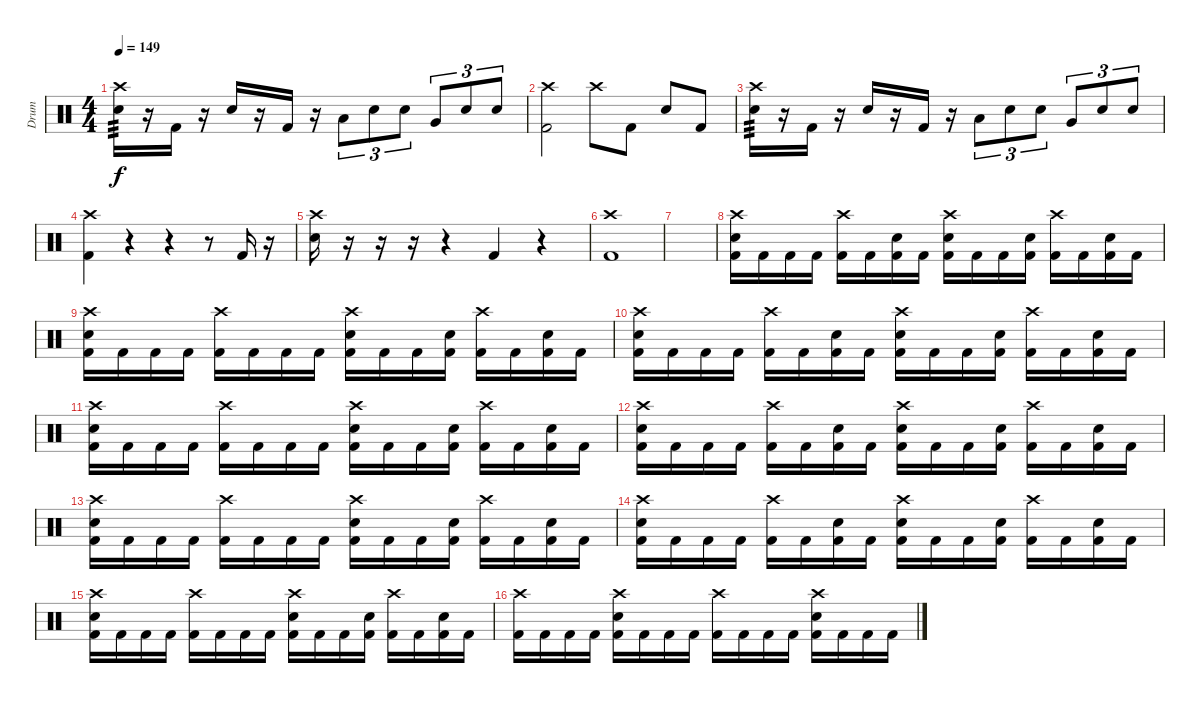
\track ("Drum" "Drum") {instrument percussion}
\staff {score}
\articulation defaults
\ts (4 4)
\tempo 149
\clef neutral
\ks c
("Crash high (hit)" "Electric Snare (hit)").16{tp 3 dy f} r.16 "Kick (hit) 2".16 r.16 "Electric Snare (hit)".16 r.16 "Kick (hit) 2".16 r.16 "Low Tom (hit)".8{tu (3 2)} "Electric Snare (hit)".8{tu (3 2)} "Electric Snare (hit)".8{tu (3 2)} "Very Low Tom (hit)".8{tu (3 2)} "Electric Snare (hit)".8{tu (3 2)} "Electric Snare (hit)".8{tu (3 2)} |
("Crash high (hit)" "Kick (hit) 2").2 "Crash high (hit)".8 "Kick (hit) 2".8 "Electric Snare (hit)".8 "Kick (hit) 2".8 |
("Crash high (hit)" "Electric Snare (hit)").16{tp 3} r.16 "Kick (hit) 2".16 r.16 "Electric Snare (hit)".16 r.16 "Kick (hit) 2".16 r.16 "Low Tom (hit)".8{tu (3 2)} "Electric Snare (hit)".8{tu (3 2)} "Electric Snare (hit)".8{tu (3 2)} "Very Low Tom (hit)".8{tu (3 2)} "Electric Snare (hit)".8{tu (3 2)} "Electric Snare (hit)".8{tu (3 2)} |
("Crash high (hit)" "Kick (hit) 2").4 r.4 r.4 r.8 "Kick (hit) 2".16 r.16 |
("Crash high (hit)" "Electric Snare (hit)").16 r.16 r.16 r.16 r.4 "Kick (hit) 2".4 r.4 |
("Crash high (hit)" "Kick (hit) 2").1 |
|
("Crash high (hit)" "Electric Snare (hit)" "Kick (hit) 2").16 "Kick (hit) 2".16 "Kick (hit) 2".16 "Kick (hit) 2".16 ("Crash high (hit)" "Kick (hit) 2").16 "Kick (hit) 2".16 ("Electric Snare (hit)" "Kick (hit) 2").16 "Kick (hit) 2".16 ("Crash high (hit)" "Electric Snare (hit)" "Kick (hit) 2").16 "Kick (hit) 2".16 "Kick (hit) 2".16 ("Electric Snare (hit)" "Kick (hit) 2").16 ("Crash high (hit)" "Kick (hit) 2").16 "Kick (hit) 2".16 ("Electric Snare (hit)" "Kick (hit) 2").16 "Kick (hit) 2".16 |
("Crash high (hit)" "Electric Snare (hit)" "Kick (hit) 2").16 "Kick (hit) 2".16 "Kick (hit) 2".16 "Kick (hit) 2".16 ("Crash high (hit)" "Kick (hit) 2").16 "Kick (hit) 2".16 "Kick (hit) 2".16 "Kick (hit) 2".16 ("Crash high (hit)" "Electric Snare (hit)" "Kick (hit) 2").16 "Kick (hit) 2".16 "Kick (hit) 2".16 ("Electric Snare (hit)" "Kick (hit) 2").16 ("Crash high (hit)" "Kick (hit) 2").16 "Kick (hit) 2".16 ("Electric Snare (hit)" "Kick (hit) 2").16 "Kick (hit) 2".16 |
("Crash high (hit)" "Electric Snare (hit)" "Kick (hit) 2").16 "Kick (hit) 2".16 "Kick (hit) 2".16 "Kick (hit) 2".16 ("Crash high (hit)" "Kick (hit) 2").16 "Kick (hit) 2".16 ("Electric Snare (hit)" "Kick (hit) 2").16 "Kick (hit) 2".16 ("Crash high (hit)" "Electric Snare (hit)" "Kick (hit) 2").16 "Kick (hit) 2".16 "Kick (hit) 2".16 ("Electric Snare (hit)" "Kick (hit) 2").16 ("Crash high (hit)" "Kick (hit) 2").16 "Kick (hit) 2".16 ("Electric Snare (hit)" "Kick (hit) 2").16 "Kick (hit) 2".16 |
("Crash high (hit)" "Electric Snare (hit)" "Kick (hit) 2").16 "Kick (hit) 2".16 "Kick (hit) 2".16 "Kick (hit) 2".16 ("Crash high (hit)" "Kick (hit) 2").16 "Kick (hit) 2".16 "Kick (hit) 2".16 "Kick (hit) 2".16 ("Crash high (hit)" "Electric Snare (hit)" "Kick (hit) 2").16 "Kick (hit) 2".16 "Kick (hit) 2".16 ("Electric Snare (hit)" "Kick (hit) 2").16 ("Crash high (hit)" "Kick (hit) 2").16 "Kick (hit) 2".16 ("Electric Snare (hit)" "Kick (hit) 2").16 "Kick (hit) 2".16 |
("Crash high (hit)" "Electric Snare (hit)" "Kick (hit) 2").16 "Kick (hit) 2".16 "Kick (hit) 2".16 "Kick (hit) 2".16 ("Crash high (hit)" "Kick (hit) 2").16 "Kick (hit) 2".16 ("Electric Snare (hit)" "Kick (hit) 2").16 "Kick (hit) 2".16 ("Crash high (hit)" "Electric Snare (hit)" "Kick (hit) 2").16 "Kick (hit) 2".16 "Kick (hit) 2".16 ("Electric Snare (hit)" "Kick (hit) 2").16 ("Crash high (hit)" "Kick (hit) 2").16 "Kick (hit) 2".16 ("Electric Snare (hit)" "Kick (hit) 2").16 "Kick (hit) 2".16 |
("Crash high (hit)" "Electric Snare (hit)" "Kick (hit) 2").16 "Kick (hit) 2".16 "Kick (hit) 2".16 "Kick (hit) 2".16 ("Crash high (hit)" "Kick (hit) 2").16 "Kick (hit) 2".16 "Kick (hit) 2".16 "Kick (hit) 2".16 ("Crash high (hit)" "Electric Snare (hit)" "Kick (hit) 2").16 "Kick (hit) 2".16 "Kick (hit) 2".16 ("Electric Snare (hit)" "Kick (hit) 2").16 ("Crash high (hit)" "Kick (hit) 2").16 "Kick (hit) 2".16 ("Electric Snare (hit)" "Kick (hit) 2").16 "Kick (hit) 2".16 |
("Crash high (hit)" "Electric Snare (hit)" "Kick (hit) 2").16 "Kick (hit) 2".16 "Kick (hit) 2".16 "Kick (hit) 2".16 ("Crash high (hit)" "Kick (hit) 2").16 "Kick (hit) 2".16 ("Electric Snare (hit)" "Kick (hit) 2").16 "Kick (hit) 2".16 ("Crash high (hit)" "Electric Snare (hit)" "Kick (hit) 2").16 "Kick (hit) 2".16 "Kick (hit) 2".16 ("Electric Snare (hit)" "Kick (hit) 2").16 ("Crash high (hit)" "Kick (hit) 2").16 "Kick (hit) 2".16 ("Electric Snare (hit)" "Kick (hit) 2").16 "Kick (hit) 2".16 |
("Crash high (hit)" "Electric Snare (hit)" "Kick (hit) 2").16 "Kick (hit) 2".16 "Kick (hit) 2".16 "Kick (hit) 2".16 ("Crash high (hit)" "Kick (hit) 2").16 "Kick (hit) 2".16 "Kick (hit) 2".16 "Kick (hit) 2".16 ("Crash high (hit)" "Electric Snare (hit)" "Kick (hit) 2").16 "Kick (hit) 2".16 "Kick (hit) 2".16 ("Electric Snare (hit)" "Kick (hit) 2").16 ("Crash high (hit)" "Kick (hit) 2").16 "Kick (hit) 2".16 ("Electric Snare (hit)" "Kick (hit) 2").16 "Kick (hit) 2".16 |
("Crash high (hit)" "Kick (hit) 2").16 "Kick (hit) 2".16 "Kick (hit) 2".16 "Kick (hit) 2".16 ("Crash high (hit)" "Electric Snare (hit)" "Kick (hit) 2").16 "Kick (hit) 2".16 "Kick (hit) 2".16 "Kick (hit) 2".16 ("Crash high (hit)" "Kick (hit) 2").16 "Kick (hit) 2".16 "Kick (hit) 2".16 "Kick (hit) 2".16 ("Crash high (hit)" "Electric Snare (hit)" "Kick (hit) 2").16 "Kick (hit) 2".16 "Kick (hit) 2".16 "Kick (hit) 2".16
